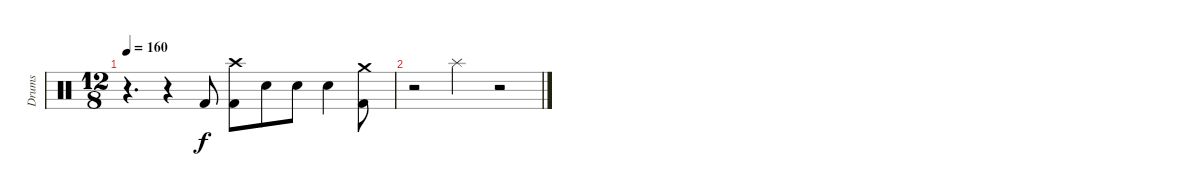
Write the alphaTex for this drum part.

\track ("Drums" "Drums") {instrument percussion}
\staff {score}
\articulation defaults
\ts (12 8)
\tempo 160
\clef neutral
\ks c
r.4{d dy f} r.4 "Kick (hit) 2".8 ("Crash high (hit)" "Kick (hit) 2").8 "Electric Snare (hit)".8 "Electric Snare (hit)".8 "Electric Snare (hit)".4 ("Crash medium (hit)" "Kick (hit) 2").8 |
r.2 "Splash (hit)".2 r.2
